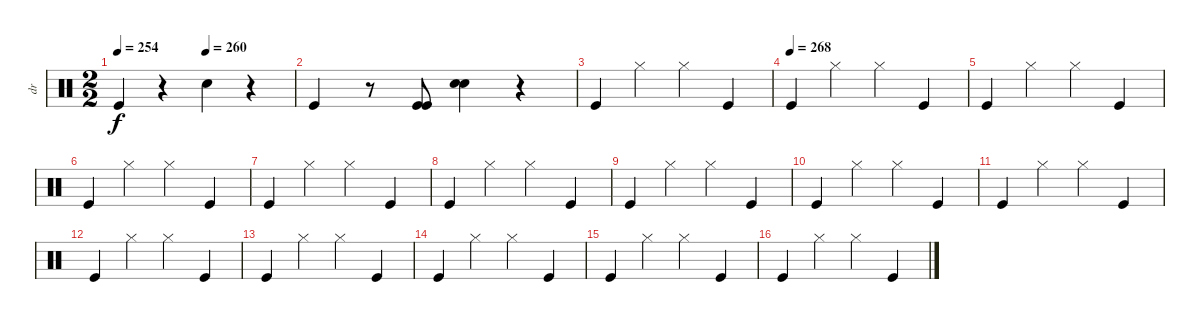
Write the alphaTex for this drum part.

\track ("dr" "dr") {instrument percussion}
\staff {score}
\articulation defaults
\ts (2 2)
\tempo 254
\tempo (260 0.5)
\clef neutral
\ks c "Kick (hit)".4{dy f}
r.4 "Snare (hit) 2".4 r.4 |
"Kick (hit)".4 r.8 ("Kick (hit)" "Kick (hit)").8 ("Snare (hit) 2" "Snare (hit) 2").4 r.4 |
"Kick (hit)".4 "Hi-Hat (closed)".4 "Hi-Hat (closed)".4 "Kick (hit)".4 |
\tempo (268)
"Kick (hit)".4 "Hi-Hat (closed)".4 "Hi-Hat (closed)".4 "Kick (hit)".4 |
"Kick (hit)".4 "Hi-Hat (closed)".4 "Hi-Hat (closed)".4 "Kick (hit)".4 |
"Kick (hit)".4 "Hi-Hat (closed)".4 "Hi-Hat (closed)".4 "Kick (hit)".4 |
"Kick (hit)".4 "Hi-Hat (closed)".4 "Hi-Hat (closed)".4 "Kick (hit)".4 |
"Kick (hit)".4 "Hi-Hat (closed)".4 "Hi-Hat (closed)".4 "Kick (hit)".4 |
"Kick (hit)".4 "Hi-Hat (closed)".4 "Hi-Hat (closed)".4 "Kick (hit)".4 |
"Kick (hit)".4 "Hi-Hat (closed)".4 "Hi-Hat (closed)".4 "Kick (hit)".4 |
"Kick (hit)".4 "Hi-Hat (closed)".4 "Hi-Hat (closed)".4 "Kick (hit)".4 |
"Kick (hit)".4 "Hi-Hat (closed)".4 "Hi-Hat (closed)".4 "Kick (hit)".4 |
"Kick (hit)".4 "Hi-Hat (closed)".4 "Hi-Hat (closed)".4 "Kick (hit)".4 |
"Kick (hit)".4 "Hi-Hat (closed)".4 "Hi-Hat (closed)".4 "Kick (hit)".4 |
"Kick (hit)".4 "Hi-Hat (closed)".4 "Hi-Hat (closed)".4 "Kick (hit)".4 |
"Kick (hit)".4 "Hi-Hat (closed)".4 "Hi-Hat (closed)".4 "Kick (hit)".4
